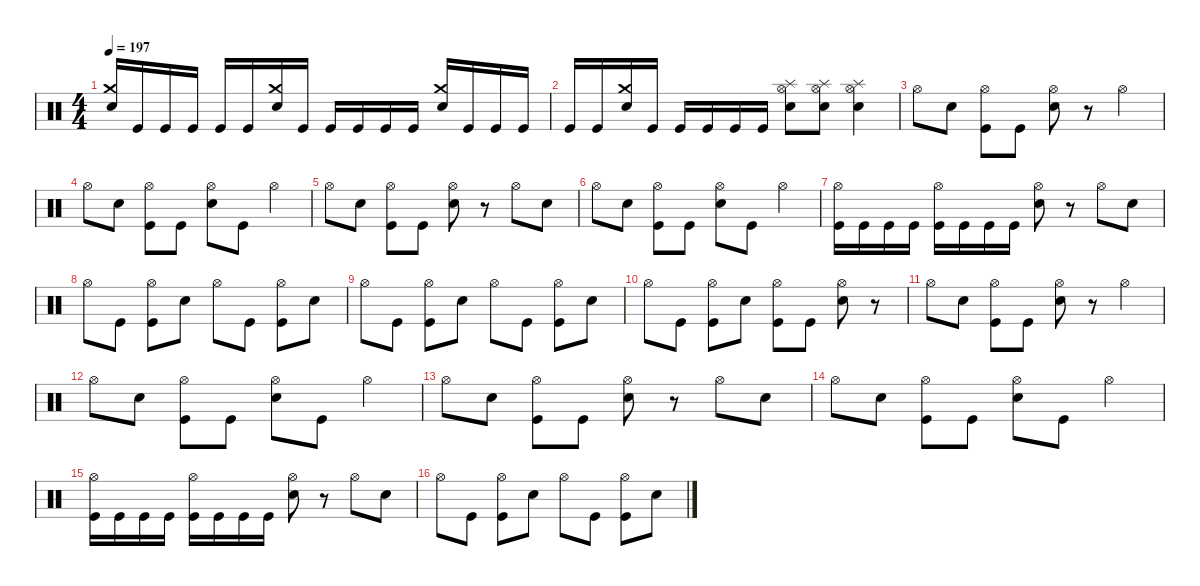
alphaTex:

\defaultSystemsLayout 4
\hideDynamics
\bracketExtendMode nobrackets
\singleTrackTrackNamePolicy hidden
\multiTrackTrackNamePolicy hidden
\firstSystemTrackNameMode fullname
\firstSystemTrackNameOrientation horizontal
\otherSystemsTrackNameOrientation horizontal
\track ("Drums" "drm.") {defaultSystemsLayout 4 instrument percussion}
\staff {score}
\articulation defaults
\ts (4 4)
\tempo 197
\clef neutral
\ks c
("Crash medium (hit)" "Snare (hit) 2").16{dy f beam Up} "Kick (hit)".16{beam Up} "Kick (hit)".16{beam Up} "Kick (hit)".16{beam Up} "Kick (hit)".16{beam Up} "Kick (hit)".16{beam Up} ("Crash medium (hit)" "Snare (hit) 2").16{beam Up} "Kick (hit)".16{beam Up} "Kick (hit)".16{beam Up} "Kick (hit)".16{beam Up} "Kick (hit)".16{beam Up} "Kick (hit)".16{beam Up} ("Crash medium (hit)" "Snare (hit) 2").16{beam Up} "Kick (hit)".16{beam Up} "Kick (hit)".16{beam Up} "Kick (hit)".16{beam Up} |
"Kick (hit)".16{beam Up} "Kick (hit)".16{beam Up} ("Crash medium (hit)" "Snare (hit) 2").16{beam Up} "Kick (hit)".16{beam Up} "Kick (hit)".16{beam Up} "Kick (hit)".16{beam Up} "Kick (hit)".16{beam Up} "Kick (hit)".16{beam Up} ("Splash (hit)" "Hi-Hat (open)" "Snare (hit) 2").8{beam Down} ("Splash (hit)" "Hi-Hat (open)" "Snare (hit) 2").8{beam Down} ("Splash (hit)" "Hi-Hat (open)" "Snare (hit) 2").4{beam Down} |
"Hi-Hat (open)".8{dy mf beam Down} "Snare (hit) 2".8{dy f beam Down} ("Hi-Hat (open)" "Kick (hit)").8{dy mf beam Down} "Kick (hit)".8{dy f beam Down} ("Hi-Hat (open)" "Snare (hit) 2").8{dy mf beam Down} r.8{beam Down} "Hi-Hat (open)".4{beam Down} |
"Hi-Hat (open)".8{beam Down} "Snare (hit) 2".8{dy f beam Down} ("Hi-Hat (open)" "Kick (hit)").8{dy mf beam Down} "Kick (hit)".8{dy f beam Down} ("Hi-Hat (open)" "Snare (hit) 2").8{dy mf beam Down} "Kick (hit)".8{dy f beam Down} "Hi-Hat (open)".4{dy mf beam Down} |
"Hi-Hat (open)".8{beam Down} "Snare (hit) 2".8{dy f beam Down} ("Hi-Hat (open)" "Kick (hit)").8{dy mf beam Down} "Kick (hit)".8{dy f beam Down} ("Hi-Hat (open)" "Snare (hit) 2").8{dy mf beam Down} r.8{beam Down} "Hi-Hat (open)".8{beam Down} "Snare (hit) 2".8{dy f beam Down} |
"Hi-Hat (open)".8{dy mf beam Down} "Snare (hit) 2".8{dy f beam Down} ("Hi-Hat (open)" "Kick (hit)").8{dy mf beam Down} "Kick (hit)".8{dy f beam Down} ("Hi-Hat (open)" "Snare (hit) 2").8{dy mf beam Down} "Kick (hit)".8{dy f beam Down} "Hi-Hat (open)".4{dy mf beam Down} |
("Hi-Hat (open)" "Kick (hit)").16{beam Down} "Kick (hit)".16{dy f beam Down} "Kick (hit)".16{beam Down} "Kick (hit)".16{beam Down} ("Hi-Hat (open)" "Kick (hit)").16{dy mf beam Down} "Kick (hit)".16{dy f beam Down} "Kick (hit)".16{beam Down} "Kick (hit)".16{beam Down} ("Hi-Hat (open)" "Snare (hit) 2").8{dy mf beam Down} r.8{beam Down} "Hi-Hat (open)".8{beam Down} "Snare (hit) 2".8{dy f beam Down} |
"Hi-Hat (open)".8{dy mf beam Down} "Kick (hit)".8{dy f beam Down} ("Hi-Hat (open)" "Kick (hit)").8{dy mf beam Down} "Snare (hit) 2".8{dy f beam Down} "Hi-Hat (open)".8{dy mf beam Down} "Kick (hit)".8{dy f beam Down} ("Hi-Hat (open)" "Kick (hit)").8{dy mf beam Down} "Snare (hit) 2".8{dy f beam Down} |
"Hi-Hat (open)".8{dy mf beam Down} "Kick (hit)".8{dy f beam Down} ("Hi-Hat (open)" "Kick (hit)").8{dy mf beam Down} "Snare (hit) 2".8{dy f beam Down} "Hi-Hat (open)".8{dy mf beam Down} "Kick (hit)".8{dy f beam Down} ("Hi-Hat (open)" "Kick (hit)").8{dy mf beam Down} "Snare (hit) 2".8{dy f beam Down} |
"Hi-Hat (open)".8{dy mf beam Down} "Kick (hit)".8{dy f beam Down} ("Hi-Hat (open)" "Kick (hit)").8{dy mf beam Down} "Snare (hit) 2".8{dy f beam Down} ("Hi-Hat (open)" "Kick (hit)").8{dy mf beam Down} "Kick (hit)".8{dy f beam Down} ("Hi-Hat (open)" "Snare (hit) 2").8{dy mf beam Down} r.8{beam Down} |
"Hi-Hat (open)".8{beam Down} "Snare (hit) 2".8{dy f beam Down} ("Hi-Hat (open)" "Kick (hit)").8{dy mf beam Down} "Kick (hit)".8{dy f beam Down} ("Hi-Hat (open)" "Snare (hit) 2").8{dy mf beam Down} r.8{beam Down} "Hi-Hat (open)".4{beam Down} |
"Hi-Hat (open)".8{beam Down} "Snare (hit) 2".8{dy f beam Down} ("Hi-Hat (open)" "Kick (hit)").8{dy mf beam Down} "Kick (hit)".8{dy f beam Down} ("Hi-Hat (open)" "Snare (hit) 2").8{dy mf beam Down} "Kick (hit)".8{dy f beam Down} "Hi-Hat (open)".4{dy mf beam Down} |
"Hi-Hat (open)".8{beam Down} "Snare (hit) 2".8{dy f beam Down} ("Hi-Hat (open)" "Kick (hit)").8{dy mf beam Down} "Kick (hit)".8{dy f beam Down} ("Hi-Hat (open)" "Snare (hit) 2").8{dy mf beam Down} r.8{beam Down} "Hi-Hat (open)".8{beam Down} "Snare (hit) 2".8{dy f beam Down} |
"Hi-Hat (open)".8{dy mf beam Down} "Snare (hit) 2".8{dy f beam Down} ("Hi-Hat (open)" "Kick (hit)").8{dy mf beam Down} "Kick (hit)".8{dy f beam Down} ("Hi-Hat (open)" "Snare (hit) 2").8{dy mf beam Down} "Kick (hit)".8{dy f beam Down} "Hi-Hat (open)".4{dy mf beam Down} |
("Hi-Hat (open)" "Kick (hit)").16{beam Down} "Kick (hit)".16{dy f beam Down} "Kick (hit)".16{beam Down} "Kick (hit)".16{beam Down} ("Hi-Hat (open)" "Kick (hit)").16{dy mf beam Down} "Kick (hit)".16{dy f beam Down} "Kick (hit)".16{beam Down} "Kick (hit)".16{beam Down} ("Hi-Hat (open)" "Snare (hit) 2").8{dy mf beam Down} r.8{beam Down} "Hi-Hat (open)".8{beam Down} "Snare (hit) 2".8{dy f beam Down} |
"Hi-Hat (open)".8{dy mf beam Down} "Kick (hit)".8{dy f beam Down} ("Hi-Hat (open)" "Kick (hit)").8{dy mf beam Down} "Snare (hit) 2".8{dy f beam Down} "Hi-Hat (open)".8{dy mf beam Down} "Kick (hit)".8{dy f beam Down} ("Hi-Hat (open)" "Kick (hit)").8{dy mf beam Down} "Snare (hit) 2".8{dy f beam Down}
